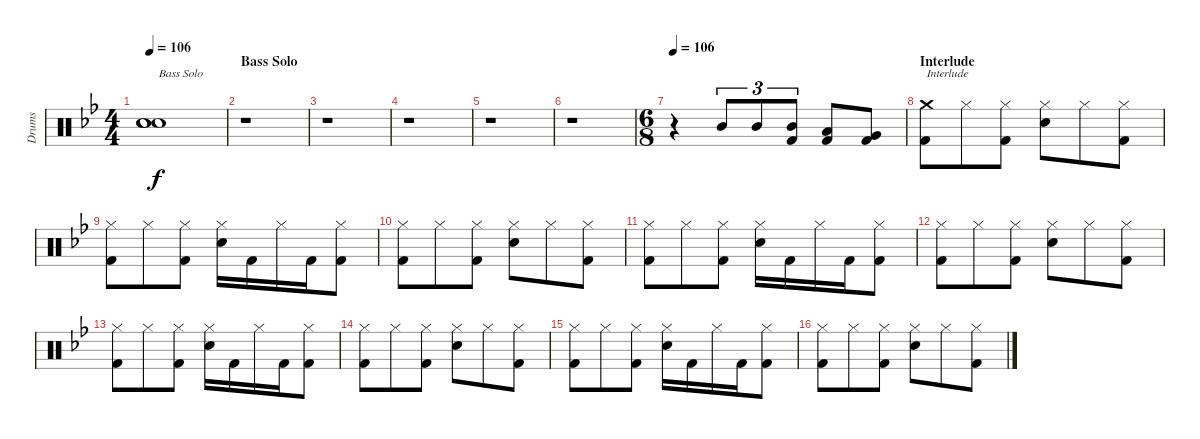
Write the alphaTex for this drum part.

\track ("Drums" "Drums") {instrument percussion}
\staff {score}
\articulation defaults
\ts (4 4)
\tempo 106
\clef neutral
\ks bb
("Snare (hit)"{t} "Snare (hit)"{t} "Snare (hit)"{t}).1{txt "Bass Solo" dy f} |
\section ("" "Bass Solo")
r.1 |
r.1 |
r.1 |
r.1 |
r.1 |
\ts (6 8)
\tempo 106
r.4 "Mid Tom (hit)".8{tu (3 2)} "Mid Tom (hit)".8{tu (3 2)} ("Mid Tom (hit)" "Kick (hit) 2").8{tu (3 2)} ("Low Tom (hit)" "Kick (hit) 2").8 ("Very Low Tom (hit)" "Kick (hit) 2").8 |
\section ("" "Interlude")
("Crash medium (hit)" "Kick (hit) 2").8{txt "Interlude"} "Hi-Hat (closed)".8 ("Hi-Hat (closed)" "Kick (hit) 2").8 ("Hi-Hat (closed)" "Snare (hit) 2").8 "Hi-Hat (closed)".8 ("Hi-Hat (closed)" "Kick (hit) 2").8 |
("Hi-Hat (closed)" "Kick (hit) 2").8 "Hi-Hat (closed)".8 ("Hi-Hat (closed)" "Kick (hit) 2").8 ("Hi-Hat (closed)" "Snare (hit) 2").16 "Kick (hit) 2".16 "Hi-Hat (closed)".16 "Kick (hit) 2".16 ("Hi-Hat (closed)" "Kick (hit) 2").8 |
("Hi-Hat (closed)" "Kick (hit) 2").8 "Hi-Hat (closed)".8 ("Hi-Hat (closed)" "Kick (hit) 2").8 ("Hi-Hat (closed)" "Snare (hit) 2").8 "Hi-Hat (closed)".8 ("Hi-Hat (closed)" "Kick (hit) 2").8 |
("Hi-Hat (closed)" "Kick (hit) 2").8 "Hi-Hat (closed)".8 ("Hi-Hat (closed)" "Kick (hit) 2").8 ("Hi-Hat (closed)" "Snare (hit) 2").16 "Kick (hit) 2".16 "Hi-Hat (closed)".16 "Kick (hit) 2".16 ("Hi-Hat (closed)" "Kick (hit) 2").8 |
("Hi-Hat (closed)" "Kick (hit) 2").8 "Hi-Hat (closed)".8 ("Hi-Hat (closed)" "Kick (hit) 2").8 ("Hi-Hat (closed)" "Snare (hit) 2").8 "Hi-Hat (closed)".8 ("Hi-Hat (closed)" "Kick (hit) 2").8 |
("Hi-Hat (closed)" "Kick (hit) 2").8 "Hi-Hat (closed)".8 ("Hi-Hat (closed)" "Kick (hit) 2").8 ("Hi-Hat (closed)" "Snare (hit) 2").16 "Kick (hit) 2".16 "Hi-Hat (closed)".16 "Kick (hit) 2".16 ("Hi-Hat (closed)" "Kick (hit) 2").8 |
("Hi-Hat (closed)" "Kick (hit) 2").8 "Hi-Hat (closed)".8 ("Hi-Hat (closed)" "Kick (hit) 2").8 ("Hi-Hat (closed)" "Snare (hit) 2").8 "Hi-Hat (closed)".8 ("Hi-Hat (closed)" "Kick (hit) 2").8 |
("Hi-Hat (closed)" "Kick (hit) 2").8 "Hi-Hat (closed)".8 ("Hi-Hat (closed)" "Kick (hit) 2").8 ("Hi-Hat (closed)" "Snare (hit) 2").16 "Kick (hit) 2".16 "Hi-Hat (closed)".16 "Kick (hit) 2".16 ("Hi-Hat (closed)" "Kick (hit) 2").8 |
("Hi-Hat (closed)" "Kick (hit) 2").8 "Hi-Hat (closed)".8 ("Hi-Hat (closed)" "Kick (hit) 2").8 ("Hi-Hat (closed)" "Snare (hit) 2").8 "Hi-Hat (closed)".8 ("Hi-Hat (closed)" "Kick (hit) 2").8
